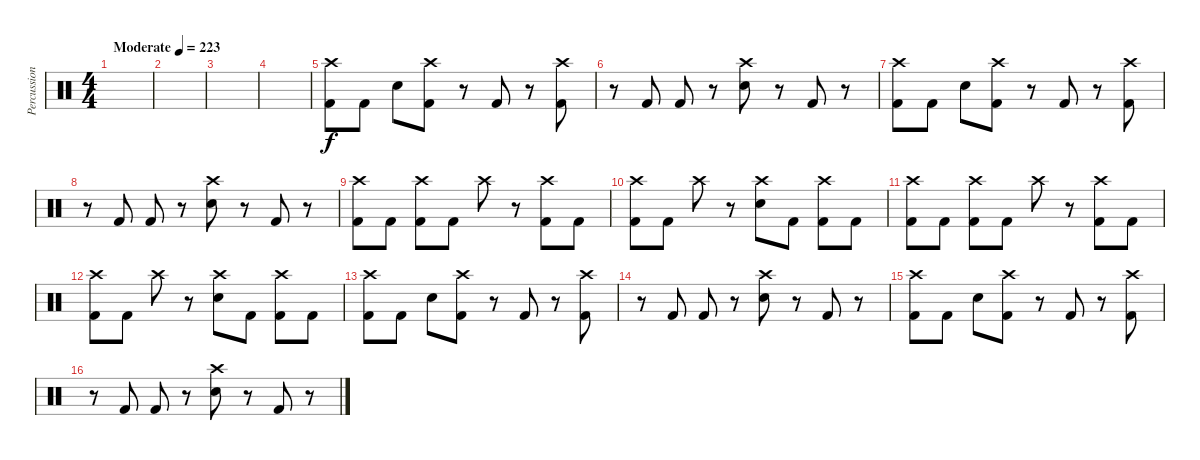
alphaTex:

\track ("Percussion" "Percussion") {instrument percussion}
\staff {score}
\articulation defaults
\ts (4 4)
\tempo (223 "Moderate")
\clef neutral
\ks c
|
|
|
|
("Crash high (hit)" "Kick (hit) 2").8 "Kick (hit) 2".8 "Electric Snare (hit)".8 ("Crash high (hit)" "Kick (hit) 2").8 r.8 "Kick (hit) 2".8 r.8 ("Crash high (hit)" "Kick (hit) 2").8 |
r.8 "Kick (hit) 2".8 "Kick (hit) 2".8 r.8 ("Crash high (hit)" "Electric Snare (hit)").8 r.8 "Kick (hit) 2".8 r.8 |
("Crash high (hit)" "Kick (hit) 2").8 "Kick (hit) 2".8 "Electric Snare (hit)".8 ("Crash high (hit)" "Kick (hit) 2").8 r.8 "Kick (hit) 2".8 r.8 ("Crash high (hit)" "Kick (hit) 2").8 |
r.8 "Kick (hit) 2".8 "Kick (hit) 2".8 r.8 ("Crash high (hit)" "Electric Snare (hit)").8 r.8 "Kick (hit) 2".8 r.8 |
("Crash high (hit)" "Kick (hit) 2").8 "Kick (hit) 2".8 ("Crash high (hit)" "Kick (hit) 2").8 "Kick (hit) 2".8 "Crash high (hit)".8 r.8 ("Crash high (hit)" "Kick (hit) 2").8 "Kick (hit) 2".8 |
("Crash high (hit)" "Kick (hit) 2").8 "Kick (hit) 2".8 "Crash high (hit)".8 r.8 ("Crash high (hit)" "Electric Snare (hit)").8 "Kick (hit) 2".8 ("Crash high (hit)" "Kick (hit) 2").8 "Kick (hit) 2".8 |
("Crash high (hit)" "Kick (hit) 2").8 "Kick (hit) 2".8 ("Crash high (hit)" "Kick (hit) 2").8 "Kick (hit) 2".8 "Crash high (hit)".8 r.8 ("Crash high (hit)" "Kick (hit) 2").8 "Kick (hit) 2".8 |
("Crash high (hit)" "Kick (hit) 2").8 "Kick (hit) 2".8 "Crash high (hit)".8 r.8 ("Crash high (hit)" "Electric Snare (hit)").8 "Kick (hit) 2".8 ("Crash high (hit)" "Kick (hit) 2").8 "Kick (hit) 2".8 |
("Crash high (hit)" "Kick (hit) 2").8 "Kick (hit) 2".8 "Electric Snare (hit)".8 ("Crash high (hit)" "Kick (hit) 2").8 r.8 "Kick (hit) 2".8 r.8 ("Crash high (hit)" "Kick (hit) 2").8 |
r.8 "Kick (hit) 2".8 "Kick (hit) 2".8 r.8 ("Crash high (hit)" "Electric Snare (hit)").8 r.8 "Kick (hit) 2".8 r.8 |
("Crash high (hit)" "Kick (hit) 2").8 "Kick (hit) 2".8 "Electric Snare (hit)".8 ("Crash high (hit)" "Kick (hit) 2").8 r.8 "Kick (hit) 2".8 r.8 ("Crash high (hit)" "Kick (hit) 2").8 |
r.8 "Kick (hit) 2".8 "Kick (hit) 2".8 r.8 ("Crash high (hit)" "Electric Snare (hit)").8 r.8 "Kick (hit) 2".8 r.8
